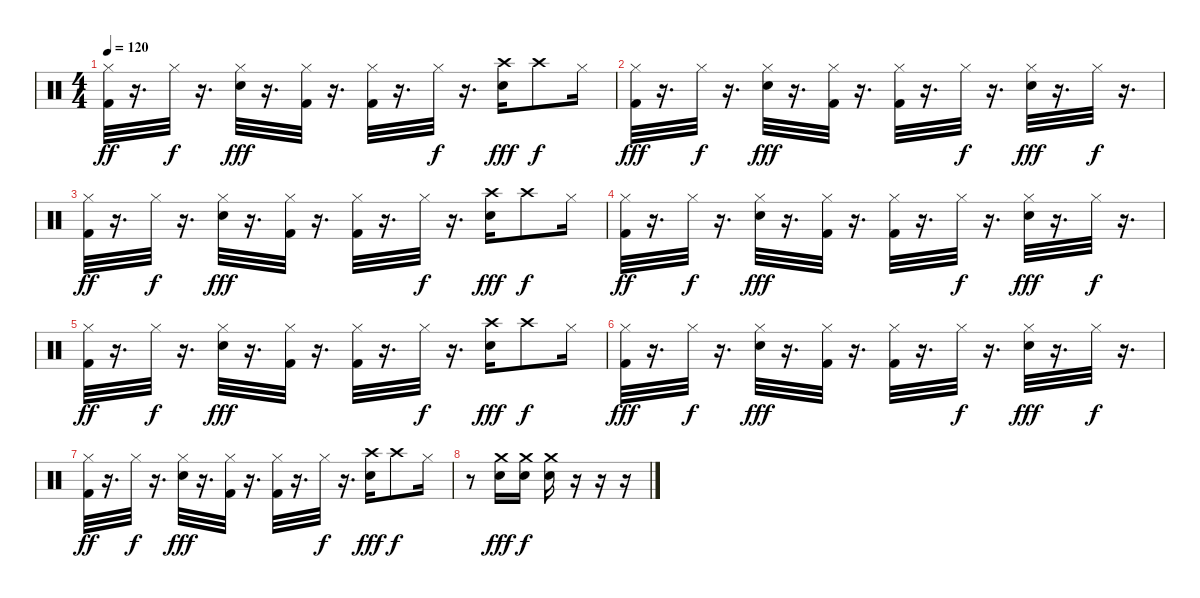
\track "" {instrument percussion}
\staff {score}
\articulation defaults
\ts (4 4)
\tempo 120
\clef neutral
\ks c
("Kick (hit) 2" "Hi-Hat (closed)").32{dy ff} r.16{d} "Hi-Hat (closed)".32{dy f} r.16{d} ("Hi-Hat (closed)" "Electric Snare (hit)").32{dy fff} r.16{d} ("Kick (hit) 2" "Hi-Hat (closed)").32 r.16{d} ("Kick (hit) 2" "Hi-Hat (closed)").32 r.16{d} "Hi-Hat (closed)".32{dy f} r.16{d} ("Crash high (hit)" "Electric Snare (hit)").16{dy fff} "Crash high (hit)".8{dy f} "Hi-Hat (closed)".16 |
("Kick (hit) 2" "Hi-Hat (closed)").32{dy fff} r.16{d} "Hi-Hat (closed)".32{dy f} r.16{d} ("Hi-Hat (closed)" "Electric Snare (hit)").32{dy fff} r.16{d} ("Kick (hit) 2" "Hi-Hat (closed)").32 r.16{d} ("Kick (hit) 2" "Hi-Hat (closed)").32{txt ""} r.16{d} "Hi-Hat (closed)".32{dy f} r.16{d} ("Hi-Hat (closed)" "Electric Snare (hit)").32{dy fff} r.16{d} "Hi-Hat (closed)".32{dy f} r.16{d} |
("Kick (hit) 2" "Hi-Hat (closed)").32{dy ff} r.16{d} "Hi-Hat (closed)".32{dy f} r.16{d} ("Hi-Hat (closed)" "Electric Snare (hit)").32{dy fff} r.16{d} ("Kick (hit) 2" "Hi-Hat (closed)").32 r.16{d} ("Kick (hit) 2" "Hi-Hat (closed)").32 r.16{d} "Hi-Hat (closed)".32{dy f} r.16{d} ("Crash high (hit)" "Electric Snare (hit)").16{dy fff} "Crash high (hit)".8{dy f} "Hi-Hat (closed)".16 |
("Kick (hit) 2" "Hi-Hat (closed)").32{dy ff} r.16{d} "Hi-Hat (closed)".32{dy f} r.16{d} ("Hi-Hat (closed)" "Electric Snare (hit)").32{dy fff} r.16{d} ("Kick (hit) 2" "Hi-Hat (closed)").32 r.16{d} ("Kick (hit) 2" "Hi-Hat (closed)").32 r.16{d} "Hi-Hat (closed)".32{dy f} r.16{d} ("Hi-Hat (closed)" "Electric Snare (hit)").32{dy fff} r.16{d} "Hi-Hat (closed)".32{dy f} r.16{d} |
("Kick (hit) 2" "Hi-Hat (closed)").32{dy ff} r.16{d} "Hi-Hat (closed)".32{dy f} r.16{d} ("Hi-Hat (closed)" "Electric Snare (hit)").32{dy fff} r.16{d} ("Kick (hit) 2" "Hi-Hat (closed)").32 r.16{d} ("Kick (hit) 2" "Hi-Hat (closed)").32 r.16{d} "Hi-Hat (closed)".32{dy f} r.16{d} ("Crash high (hit)" "Electric Snare (hit)").16{dy fff} "Crash high (hit)".8{dy f} "Hi-Hat (closed)".16 |
("Kick (hit) 2" "Hi-Hat (closed)").32{dy fff} r.16{d} "Hi-Hat (closed)".32{dy f} r.16{d} ("Hi-Hat (closed)" "Electric Snare (hit)").32{dy fff} r.16{d} ("Kick (hit) 2" "Hi-Hat (closed)").32 r.16{d} ("Kick (hit) 2" "Hi-Hat (closed)").32 r.16{d} "Hi-Hat (closed)".32{dy f} r.16{d} ("Hi-Hat (closed)" "Electric Snare (hit)").32{dy fff} r.16{d} "Hi-Hat (closed)".32{dy f} r.16{d} |
("Kick (hit) 2" "Hi-Hat (closed)").32{dy ff} r.16{d} "Hi-Hat (closed)".32{dy f} r.16{d} ("Hi-Hat (closed)" "Electric Snare (hit)").32{dy fff} r.16{d} ("Kick (hit) 2" "Hi-Hat (closed)").32 r.16{d} ("Kick (hit) 2" "Hi-Hat (closed)").32 r.16{d} "Hi-Hat (closed)".32{dy f} r.16{d} ("Crash high (hit)" "Electric Snare (hit)").16{dy fff} "Crash high (hit)".8{dy f} "Hi-Hat (closed)".16 |
r.8 ("Crash medium (hit)" "Snare (hit) 2").16{dy fff} ("Crash medium (hit)" "Snare (hit) 2").16{dy f} ("Crash medium (hit)" "Electric Snare (hit)").16 r.16 r.16 r.16
